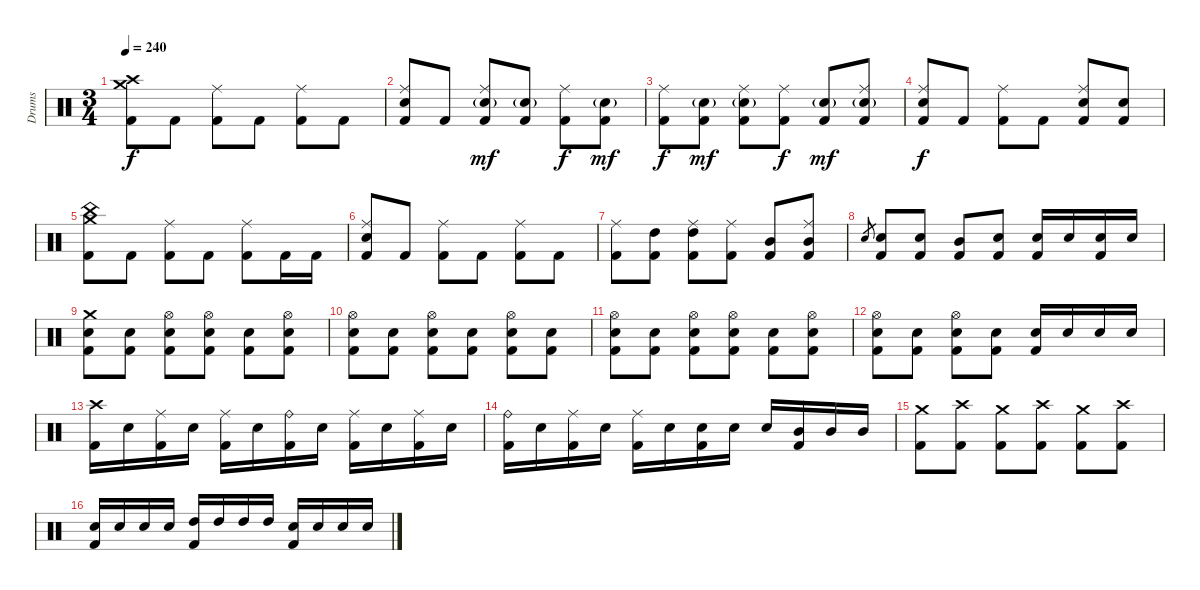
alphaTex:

\track ("Drums" "Drums") {instrument percussion}
\staff {score}
\articulation defaults
\ts (3 4)
\tempo 240
\clef neutral
\ks c
("Crash medium (hit)" "Crash high (hit)" "Kick (hit) 2").8{dy f} "Kick (hit) 2".8 ("Ride (middle)" "Kick (hit) 2").8 "Kick (hit) 2".8 ("Ride (middle)" "Kick (hit) 2").8 "Kick (hit) 2".8 |
("Ride (middle)" "Electric Snare (hit)" "Kick (hit) 2").8 "Kick (hit) 2".8 ("Ride (middle)" "Electric Snare (hit)"{g} "Kick (hit) 2").8{dy mf} ("Electric Snare (hit)"{g} "Kick (hit) 2").8 ("Ride (middle)" "Kick (hit) 2").8{dy f} ("Electric Snare (hit)"{g} "Kick (hit) 2").8{dy mf} |
("Ride (middle)" "Kick (hit) 2").8{dy f} ("Electric Snare (hit)"{g} "Kick (hit) 2").8{dy mf} ("Ride (middle)" "Electric Snare (hit)"{g} "Kick (hit) 2").8 ("Ride (middle)" "Kick (hit) 2").8{dy f} ("Electric Snare (hit)"{g} "Kick (hit) 2").8{dy mf} ("Ride (middle)" "Electric Snare (hit)"{g} "Kick (hit) 2").8 |
("Ride (middle)" "Electric Snare (hit)" "Kick (hit) 2").8{dy f} "Kick (hit) 2".8 ("Ride (middle)" "Kick (hit) 2").8 "Kick (hit) 2".8 ("Ride (middle)" "Electric Snare (hit)" "Kick (hit) 2").8 ("Electric Snare (hit)" "Kick (hit) 2").8 |
("Crash medium (hit)" "China (hit)" "Kick (hit) 2").8 "Kick (hit) 2".8 ("Ride (middle)" "Kick (hit) 2").8 "Kick (hit) 2".8 ("Ride (middle)" "Kick (hit) 2").8 "Kick (hit) 2".16 "Kick (hit) 2".16 |
("Ride (middle)" "Electric Snare (hit)" "Kick (hit) 2").8 "Kick (hit) 2".8 ("Ride (middle)" "Kick (hit) 2").8 "Kick (hit) 2".8 ("Ride (middle)" "Kick (hit) 2").8 "Kick (hit) 2".8 |
("Ride (middle)" "Kick (hit) 2").8 ("High Tom (hit)" "Kick (hit) 2").8 ("Ride (middle)" "High Tom (hit)" "Kick (hit) 2").8 ("Ride (middle)" "Kick (hit) 2").8 ("Mid Tom (hit)" "Kick (hit) 2").8 ("Ride (middle)" "Mid Tom (hit)" "Kick (hit) 2").8 |
"Electric Snare (hit)".8{gr} ("Electric Snare (hit)" "Kick (hit) 2").8 ("Electric Snare (hit)" "Kick (hit) 2").8 ("Mid Tom (hit)" "Kick (hit) 2").8 ("Electric Snare (hit)" "Kick (hit) 2").8 ("Electric Snare (hit)" "Kick (hit) 2").16 "Electric Snare (hit)".16 ("Electric Snare (hit)" "Kick (hit) 2").16 "Electric Snare (hit)".16 |
("Crash medium (hit)" "Electric Snare (hit)" "Kick (hit) 2").8 ("Electric Snare (hit)" "Kick (hit) 2").8 ("Hi-Hat (open)" "Electric Snare (hit)" "Kick (hit) 2").8 ("Hi-Hat (open)" "Electric Snare (hit)" "Kick (hit) 2").8 ("Electric Snare (hit)" "Kick (hit) 2").8 ("Hi-Hat (open)" "Electric Snare (hit)" "Kick (hit) 2").8 |
("Hi-Hat (open)" "Electric Snare (hit)" "Kick (hit) 2").8 ("Electric Snare (hit)" "Kick (hit) 2").8 ("Hi-Hat (open)" "Electric Snare (hit)" "Kick (hit) 2").8 ("Electric Snare (hit)" "Kick (hit) 2").8 ("Hi-Hat (open)" "Electric Snare (hit)" "Kick (hit) 2").8 ("Electric Snare (hit)" "Kick (hit) 2").8 |
("Hi-Hat (open)" "Electric Snare (hit)" "Kick (hit) 2").8 ("Electric Snare (hit)" "Kick (hit) 2").8 ("Hi-Hat (open)" "Electric Snare (hit)" "Kick (hit) 2").8 ("Hi-Hat (open)" "Electric Snare (hit)" "Kick (hit) 2").8 ("Electric Snare (hit)" "Kick (hit) 2").8 ("Hi-Hat (open)" "Electric Snare (hit)" "Kick (hit) 2").8 |
("Hi-Hat (open)" "Electric Snare (hit)" "Kick (hit) 2").8 ("Electric Snare (hit)" "Kick (hit) 2").8 ("Hi-Hat (open)" "Electric Snare (hit)" "Kick (hit) 2").8 ("Electric Snare (hit)" "Kick (hit) 2").8 ("Electric Snare (hit)" "Kick (hit) 2").16 "Electric Snare (hit)".16 "Electric Snare (hit)".16 "Electric Snare (hit)".16 |
("Crash high (hit)" "Kick (hit) 2").16 "Electric Snare (hit)".16 ("Ride (middle)" "Kick (hit) 2").16 "Electric Snare (hit)".16 ("Ride (middle)" "Kick (hit) 2").16 "Electric Snare (hit)".16 ("Ride (bell)" "Kick (hit) 2").16 "Electric Snare (hit)".16 ("Ride (middle)" "Kick (hit) 2").16 "Electric Snare (hit)".16 ("Ride (middle)" "Kick (hit) 2").16 "Electric Snare (hit)".16 |
("Ride (bell)" "Kick (hit) 2").16 "Electric Snare (hit)".16 ("Ride (middle)" "Kick (hit) 2").16 "Electric Snare (hit)".16 ("Ride (middle)" "Kick (hit) 2").16 "Electric Snare (hit)".16 ("Electric Snare (hit)" "Kick (hit) 2").16 "Electric Snare (hit)".16 "Electric Snare (hit)".16 ("Mid Tom (hit)" "Kick (hit) 2").16 "Mid Tom (hit)".16 "Mid Tom (hit)".16 |
("Crash medium (hit)" "Kick (hit) 2").8 ("Crash high (hit)" "Kick (hit) 2").8 ("Crash medium (hit)" "Kick (hit) 2").8 ("Crash high (hit)" "Kick (hit) 2").8 ("Crash medium (hit)" "Kick (hit) 2").8 ("Crash high (hit)" "Kick (hit) 2").8 |
("Electric Snare (hit)" "Kick (hit) 2").16 "Electric Snare (hit)".16 "Electric Snare (hit)".16 "Electric Snare (hit)".16 ("High Tom (hit)" "Kick (hit) 2").16 "High Tom (hit)".16 "High Tom (hit)".16 "High Tom (hit)".16 ("Electric Snare (hit)" "Kick (hit) 2").16 "Electric Snare (hit)".16 "Electric Snare (hit)".16 "Electric Snare (hit)".16
